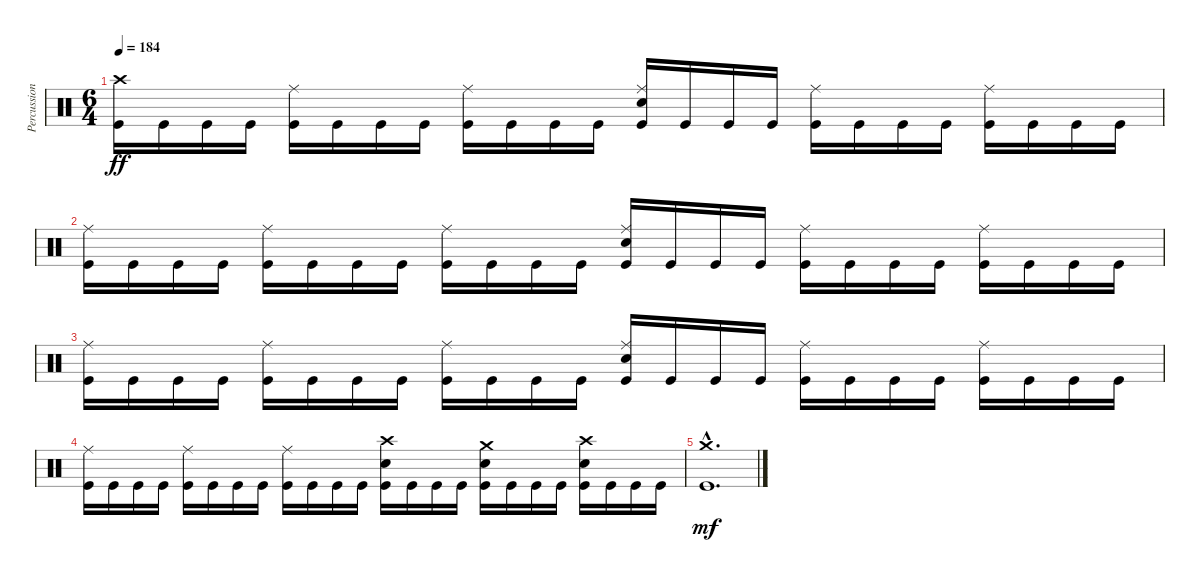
\track ("Percussion" "Percussion") {instrument percussion}
\staff {score}
\articulation defaults
\ts (6 4)
\tempo 184
\clef neutral
\ks c
("Crash high (hit)" "Kick (hit)").16{dy ff} "Kick (hit)".16 "Kick (hit)".16 "Kick (hit)".16 ("Ride (middle)" "Kick (hit)").16 "Kick (hit)".16 "Kick (hit)".16 "Kick (hit)".16 ("Ride (middle)" "Kick (hit)").16 "Kick (hit)".16 "Kick (hit)".16 "Kick (hit)".16 ("Ride (middle)" "Electric Snare (hit)" "Kick (hit)").16 "Kick (hit)".16 "Kick (hit)".16 "Kick (hit)".16 ("Ride (middle)" "Kick (hit)").16 "Kick (hit)".16 "Kick (hit)".16 "Kick (hit)".16 ("Ride (middle)" "Kick (hit)").16 "Kick (hit)".16 "Kick (hit)".16 "Kick (hit)".16 |
("Ride (middle)" "Kick (hit)").16 "Kick (hit)".16 "Kick (hit)".16 "Kick (hit)".16 ("Ride (middle)" "Kick (hit)").16 "Kick (hit)".16 "Kick (hit)".16 "Kick (hit)".16 ("Ride (middle)" "Kick (hit)").16 "Kick (hit)".16 "Kick (hit)".16 "Kick (hit)".16 ("Ride (middle)" "Electric Snare (hit)" "Kick (hit)").16 "Kick (hit)".16 "Kick (hit)".16 "Kick (hit)".16 ("Ride (middle)" "Kick (hit)").16 "Kick (hit)".16 "Kick (hit)".16 "Kick (hit)".16 ("Ride (middle)" "Kick (hit)").16 "Kick (hit)".16 "Kick (hit)".16 "Kick (hit)".16 |
("Ride (middle)" "Kick (hit)").16 "Kick (hit)".16 "Kick (hit)".16 "Kick (hit)".16 ("Ride (middle)" "Kick (hit)").16 "Kick (hit)".16 "Kick (hit)".16 "Kick (hit)".16 ("Ride (middle)" "Kick (hit)").16 "Kick (hit)".16 "Kick (hit)".16 "Kick (hit)".16 ("Ride (middle)" "Electric Snare (hit)" "Kick (hit)").16 "Kick (hit)".16 "Kick (hit)".16 "Kick (hit)".16 ("Ride (middle)" "Kick (hit)").16 "Kick (hit)".16 "Kick (hit)".16 "Kick (hit)".16 ("Ride (middle)" "Kick (hit)").16 "Kick (hit)".16 "Kick (hit)".16 "Kick (hit)".16 |
("Ride (middle)" "Kick (hit)").16 "Kick (hit)".16 "Kick (hit)".16 "Kick (hit)".16 ("Ride (middle)" "Kick (hit)").16 "Kick (hit)".16 "Kick (hit)".16 "Kick (hit)".16 ("Ride (middle)" "Kick (hit)").16 "Kick (hit)".16 "Kick (hit)".16 "Kick (hit)".16 ("Crash high (hit)" "Electric Snare (hit)" "Kick (hit)").16 "Kick (hit)".16 "Kick (hit)".16 "Kick (hit)".16 ("Crash medium (hit)" "Electric Snare (hit)" "Kick (hit)").16 "Kick (hit)".16 "Kick (hit)".16 "Kick (hit)".16 ("Crash high (hit)" "Electric Snare (hit)" "Kick (hit)").16 "Kick (hit)".16 "Kick (hit)".16 "Kick (hit)".16 |
("Crash medium (hit)"{hac} "Kick (hit)"{hac}).1{d dy mf}
